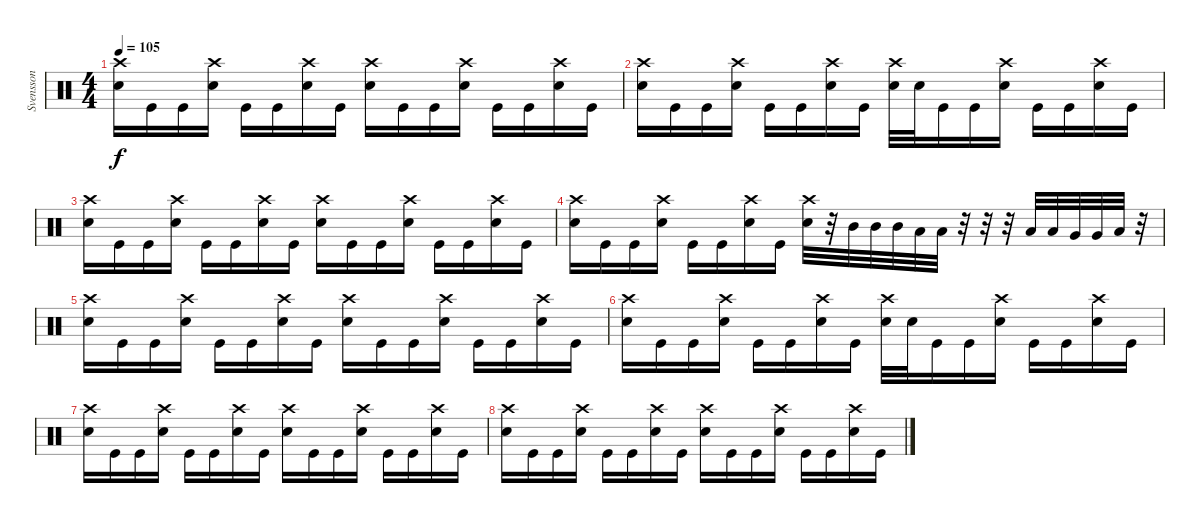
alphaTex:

\track ("Svensson" "Svensson") {instrument percussion}
\staff {score}
\articulation defaults
\ts (4 4)
\tempo 105
\clef neutral
\ks c
("Crash high (hit)" "Snare (hit) 2").16{dy f} "Kick (hit)".16 "Kick (hit)".16 ("Crash high (hit)" "Snare (hit) 2").16 "Kick (hit)".16 "Kick (hit)".16 ("Crash high (hit)" "Snare (hit) 2").16 "Kick (hit)".16 ("Crash high (hit)" "Snare (hit) 2").16 "Kick (hit)".16 "Kick (hit)".16 ("Crash high (hit)" "Snare (hit) 2").16 "Kick (hit)".16 "Kick (hit)".16 ("Crash high (hit)" "Snare (hit) 2").16 "Kick (hit)".16 |
("Crash high (hit)" "Snare (hit) 2").16 "Kick (hit)".16 "Kick (hit)".16 ("Crash high (hit)" "Snare (hit) 2").16 "Kick (hit)".16 "Kick (hit)".16 ("Crash high (hit)" "Snare (hit) 2").16 "Kick (hit)".16 ("Crash high (hit)" "Snare (hit) 2").32 "Snare (hit) 2".32 "Kick (hit)".16 "Kick (hit)".16 ("Crash high (hit)" "Snare (hit) 2").16 "Kick (hit)".16 "Kick (hit)".16 ("Crash high (hit)" "Snare (hit) 2").16 "Kick (hit)".16 |
("Crash high (hit)" "Snare (hit) 2").16 "Kick (hit)".16 "Kick (hit)".16 ("Crash high (hit)" "Snare (hit) 2").16 "Kick (hit)".16 "Kick (hit)".16 ("Crash high (hit)" "Snare (hit) 2").16 "Kick (hit)".16 ("Crash high (hit)" "Snare (hit) 2").16 "Kick (hit)".16 "Kick (hit)".16 ("Crash high (hit)" "Snare (hit) 2").16 "Kick (hit)".16 "Kick (hit)".16 ("Crash high (hit)" "Snare (hit) 2").16 "Kick (hit)".16 |
("Crash high (hit)" "Snare (hit) 2").16 "Kick (hit)".16 "Kick (hit)".16 ("Crash high (hit)" "Snare (hit) 2").16 "Kick (hit)".16 "Kick (hit)".16 ("Crash high (hit)" "Snare (hit) 2").16 "Kick (hit)".16 ("Crash high (hit)" "Snare (hit) 2").32 r.32 "Mid Tom (hit)".32 "Mid Tom (hit)".32 "Mid Tom (hit)".32 "Low Tom (hit)".32 "Low Tom (hit)".32 r.32 r.32 r.32 "Low Tom (hit)".32 "Low Tom (hit)".32 "Very Low Tom (hit)".32 "Very Low Tom (hit)".32 "Low Floor Tom (hit)".32 r.32 |
("Crash high (hit)" "Snare (hit) 2").16 "Kick (hit)".16 "Kick (hit)".16 ("Crash high (hit)" "Snare (hit) 2").16 "Kick (hit)".16 "Kick (hit)".16 ("Crash high (hit)" "Snare (hit) 2").16 "Kick (hit)".16 ("Crash high (hit)" "Snare (hit) 2").16 "Kick (hit)".16 "Kick (hit)".16 ("Crash high (hit)" "Snare (hit) 2").16 "Kick (hit)".16 "Kick (hit)".16 ("Crash high (hit)" "Snare (hit) 2").16 "Kick (hit)".16 |
("Crash high (hit)" "Snare (hit) 2").16 "Kick (hit)".16 "Kick (hit)".16 ("Crash high (hit)" "Snare (hit) 2").16 "Kick (hit)".16 "Kick (hit)".16 ("Crash high (hit)" "Snare (hit) 2").16 "Kick (hit)".16 ("Crash high (hit)" "Snare (hit) 2").32 "Snare (hit) 2".32 "Kick (hit)".16 "Kick (hit)".16 ("Crash high (hit)" "Snare (hit) 2").16 "Kick (hit)".16 "Kick (hit)".16 ("Crash high (hit)" "Snare (hit) 2").16 "Kick (hit)".16 |
("Crash high (hit)" "Snare (hit) 2").16 "Kick (hit)".16 "Kick (hit)".16 ("Crash high (hit)" "Snare (hit) 2").16 "Kick (hit)".16 "Kick (hit)".16 ("Crash high (hit)" "Snare (hit) 2").16 "Kick (hit)".16 ("Crash high (hit)" "Snare (hit) 2").16 "Kick (hit)".16 "Kick (hit)".16 ("Crash high (hit)" "Snare (hit) 2").16 "Kick (hit)".16 "Kick (hit)".16 ("Crash high (hit)" "Snare (hit) 2").16 "Kick (hit)".16 |
("Crash high (hit)" "Snare (hit) 2").16 "Kick (hit)".16 "Kick (hit)".16 ("Crash high (hit)" "Snare (hit) 2").16 "Kick (hit)".16 "Kick (hit)".16 ("Crash high (hit)" "Snare (hit) 2").16 "Kick (hit)".16 ("Crash high (hit)" "Snare (hit) 2").16 "Kick (hit)".16 "Kick (hit)".16 ("Crash high (hit)" "Snare (hit) 2").16 "Kick (hit)".16 "Kick (hit)".16 ("Crash high (hit)" "Snare (hit) 2").16 "Kick (hit)".16
